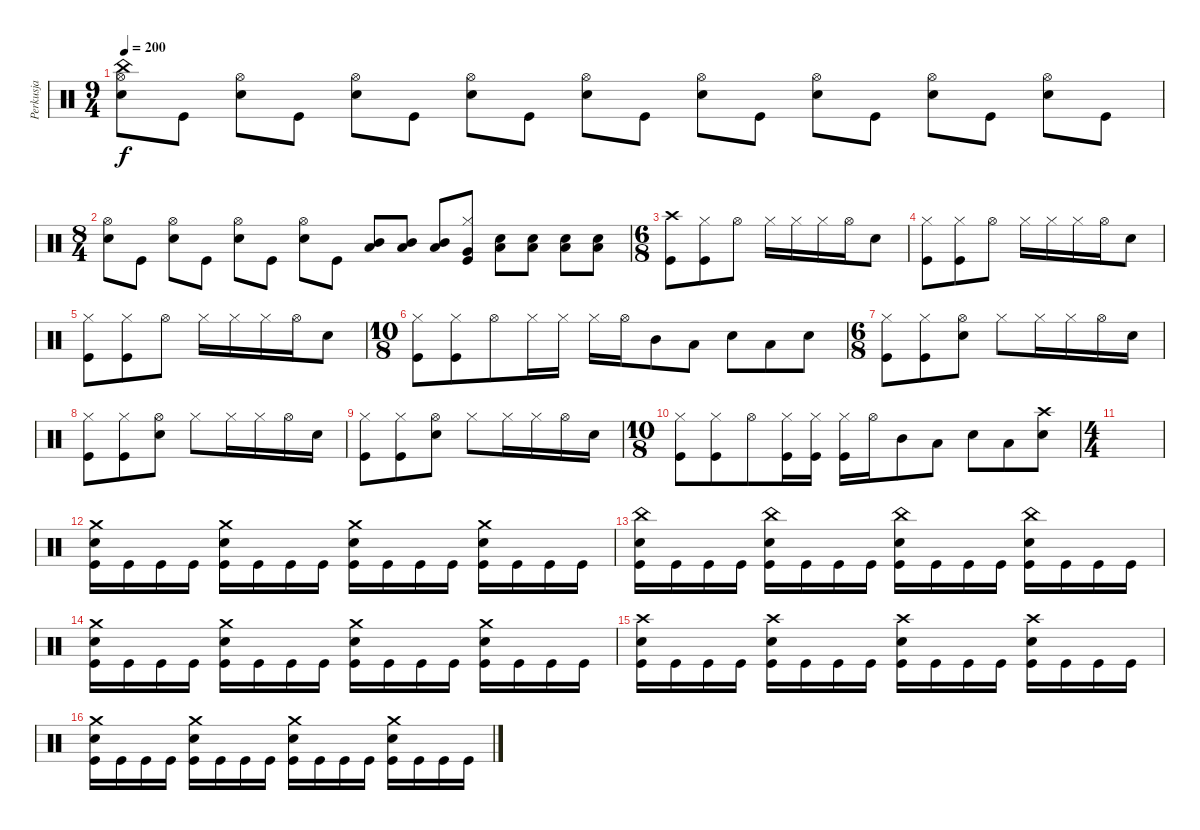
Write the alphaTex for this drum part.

\track ("Perkusja" "Perkusja") {instrument percussion}
\staff {score}
\articulation defaults
\ts (9 4)
\tempo 200
\clef neutral
\ks c
("China (hit)" "Hi-Hat (open)" "Electric Snare (hit)").8{dy f} "Kick (hit)".8 ("Hi-Hat (open)" "Electric Snare (hit)").8 "Kick (hit)".8 ("Hi-Hat (open)" "Electric Snare (hit)").8 "Kick (hit)".8 ("Hi-Hat (open)" "Electric Snare (hit)").8 "Kick (hit)".8 ("Hi-Hat (open)" "Electric Snare (hit)").8 "Kick (hit)".8 ("Hi-Hat (open)" "Electric Snare (hit)").8 "Kick (hit)".8 ("Hi-Hat (open)" "Electric Snare (hit)").8 "Kick (hit)".8 ("Hi-Hat (open)" "Electric Snare (hit)").8 "Kick (hit)".8 ("Hi-Hat (open)" "Electric Snare (hit)").8 "Kick (hit)".8 |
\ts (8 4)
("Hi-Hat (open)" "Electric Snare (hit)").8 "Kick (hit)".8 ("Hi-Hat (open)" "Electric Snare (hit)").8 "Kick (hit)".8 ("Hi-Hat (open)" "Electric Snare (hit)").8 "Kick (hit)".8 ("Hi-Hat (open)" "Electric Snare (hit)").8 "Kick (hit)".8 ("Mid Tom (hit)" "Low Tom (hit)").8 ("Mid Tom (hit)" "Low Tom (hit)").8 ("Mid Tom (hit)" "Low Tom (hit)").8 ("Hi-Hat (closed)" "Very Low Tom (hit)" "Kick (hit)").8 ("Low Tom (hit)" "Electric Snare (hit)").8 ("Low Tom (hit)" "Electric Snare (hit)").8 ("Low Tom (hit)" "Electric Snare (hit)").8 ("Low Tom (hit)" "Electric Snare (hit)").8 |
\ts (6 8)
("Crash high (hit)" "Kick (hit)").8 ("Hi-Hat (closed)" "Kick (hit)").8 "Hi-Hat (open)".8 "Hi-Hat (closed)".16 "Hi-Hat (closed)".16 "Hi-Hat (closed)".16 "Hi-Hat (open)".16 "Electric Snare (hit)".8 |
("Hi-Hat (closed)" "Kick (hit)").8 ("Hi-Hat (closed)" "Kick (hit)").8 "Hi-Hat (open)".8 "Hi-Hat (closed)".16 "Hi-Hat (closed)".16 "Hi-Hat (closed)".16 "Hi-Hat (open)".16 "Electric Snare (hit)".8 |
("Hi-Hat (closed)" "Kick (hit)").8 ("Hi-Hat (closed)" "Kick (hit)").8 "Hi-Hat (open)".8 "Hi-Hat (closed)".16 "Hi-Hat (closed)".16 "Hi-Hat (closed)".16 "Hi-Hat (open)".16 "Electric Snare (hit)".8 |
\ts (10 8)
("Hi-Hat (closed)" "Kick (hit)").8 ("Hi-Hat (closed)" "Kick (hit)").8 "Hi-Hat (open)".8 "Hi-Hat (closed)".16 "Hi-Hat (closed)".16 "Hi-Hat (closed)".16 "Hi-Hat (open)".16 "Mid Tom (hit)".8 "Low Tom (hit)".8 "Electric Snare (hit)".8 "Low Tom (hit)".8 "Electric Snare (hit)".8 |
\ts (6 8)
("Hi-Hat (closed)" "Kick (hit)").8 ("Hi-Hat (closed)" "Kick (hit)").8 ("Hi-Hat (open)" "Electric Snare (hit)").8 "Hi-Hat (closed)".8 "Hi-Hat (closed)".16 "Hi-Hat (closed)".16 "Hi-Hat (open)".16 "Electric Snare (hit)".16 |
("Hi-Hat (closed)" "Kick (hit)").8 ("Hi-Hat (closed)" "Kick (hit)").8 ("Hi-Hat (open)" "Electric Snare (hit)").8 "Hi-Hat (closed)".8 "Hi-Hat (closed)".16 "Hi-Hat (closed)".16 "Hi-Hat (open)".16 "Electric Snare (hit)".16 |
("Hi-Hat (closed)" "Kick (hit)").8 ("Hi-Hat (closed)" "Kick (hit)").8 ("Hi-Hat (open)" "Electric Snare (hit)").8 "Hi-Hat (closed)".8 "Hi-Hat (closed)".16 "Hi-Hat (closed)".16 "Hi-Hat (open)".16 "Electric Snare (hit)".16 |
\ts (10 8)
("Hi-Hat (closed)" "Kick (hit)").8 ("Hi-Hat (closed)" "Kick (hit)").8 "Hi-Hat (open)".8 ("Hi-Hat (closed)" "Kick (hit)").16 ("Hi-Hat (closed)" "Kick (hit)").16 ("Hi-Hat (closed)" "Kick (hit)").16 "Hi-Hat (open)".16 "Mid Tom (hit)".8 "Low Tom (hit)".8 "Electric Snare (hit)".8 "Low Tom (hit)".8 ("Crash high (hit)" "Electric Snare (hit)").8 |
\ts (4 4)
|
("Crash medium (hit)" "Electric Snare (hit)" "Kick (hit)").16 "Kick (hit)".16 "Kick (hit)".16 "Kick (hit)".16 ("Crash medium (hit)" "Electric Snare (hit)" "Kick (hit)").16 "Kick (hit)".16 "Kick (hit)".16 "Kick (hit)".16 ("Crash medium (hit)" "Electric Snare (hit)" "Kick (hit)").16 "Kick (hit)".16 "Kick (hit)".16 "Kick (hit)".16 ("Crash medium (hit)" "Electric Snare (hit)" "Kick (hit)").16 "Kick (hit)".16 "Kick (hit)".16 "Kick (hit)".16 |
("China (hit)" "Electric Snare (hit)" "Kick (hit)").16 "Kick (hit)".16 "Kick (hit)".16 "Kick (hit)".16 ("China (hit)" "Electric Snare (hit)" "Kick (hit)").16 "Kick (hit)".16 "Kick (hit)".16 "Kick (hit)".16 ("China (hit)" "Electric Snare (hit)" "Kick (hit)").16 "Kick (hit)".16 "Kick (hit)".16 "Kick (hit)".16 ("China (hit)" "Electric Snare (hit)" "Kick (hit)").16 "Kick (hit)".16 "Kick (hit)".16 "Kick (hit)".16 |
("Crash medium (hit)" "Electric Snare (hit)" "Kick (hit)").16 "Kick (hit)".16 "Kick (hit)".16 "Kick (hit)".16 ("Crash medium (hit)" "Electric Snare (hit)" "Kick (hit)").16 "Kick (hit)".16 "Kick (hit)".16 "Kick (hit)".16 ("Crash medium (hit)" "Electric Snare (hit)" "Kick (hit)").16 "Kick (hit)".16 "Kick (hit)".16 "Kick (hit)".16 ("Crash medium (hit)" "Electric Snare (hit)" "Kick (hit)").16 "Kick (hit)".16 "Kick (hit)".16 "Kick (hit)".16 |
("Crash high (hit)" "Electric Snare (hit)" "Kick (hit)").16 "Kick (hit)".16 "Kick (hit)".16 "Kick (hit)".16 ("Crash high (hit)" "Electric Snare (hit)" "Kick (hit)").16 "Kick (hit)".16 "Kick (hit)".16 "Kick (hit)".16 ("Crash high (hit)" "Electric Snare (hit)" "Kick (hit)").16 "Kick (hit)".16 "Kick (hit)".16 "Kick (hit)".16 ("Crash high (hit)" "Electric Snare (hit)" "Kick (hit)").16 "Kick (hit)".16 "Kick (hit)".16 "Kick (hit)".16 |
("Crash medium (hit)" "Electric Snare (hit)" "Kick (hit)").16 "Kick (hit)".16 "Kick (hit)".16 "Kick (hit)".16 ("Crash medium (hit)" "Electric Snare (hit)" "Kick (hit)").16 "Kick (hit)".16 "Kick (hit)".16 "Kick (hit)".16 ("Crash medium (hit)" "Electric Snare (hit)" "Kick (hit)").16 "Kick (hit)".16 "Kick (hit)".16 "Kick (hit)".16 ("Crash medium (hit)" "Electric Snare (hit)" "Kick (hit)").16 "Kick (hit)".16 "Kick (hit)".16 "Kick (hit)".16
